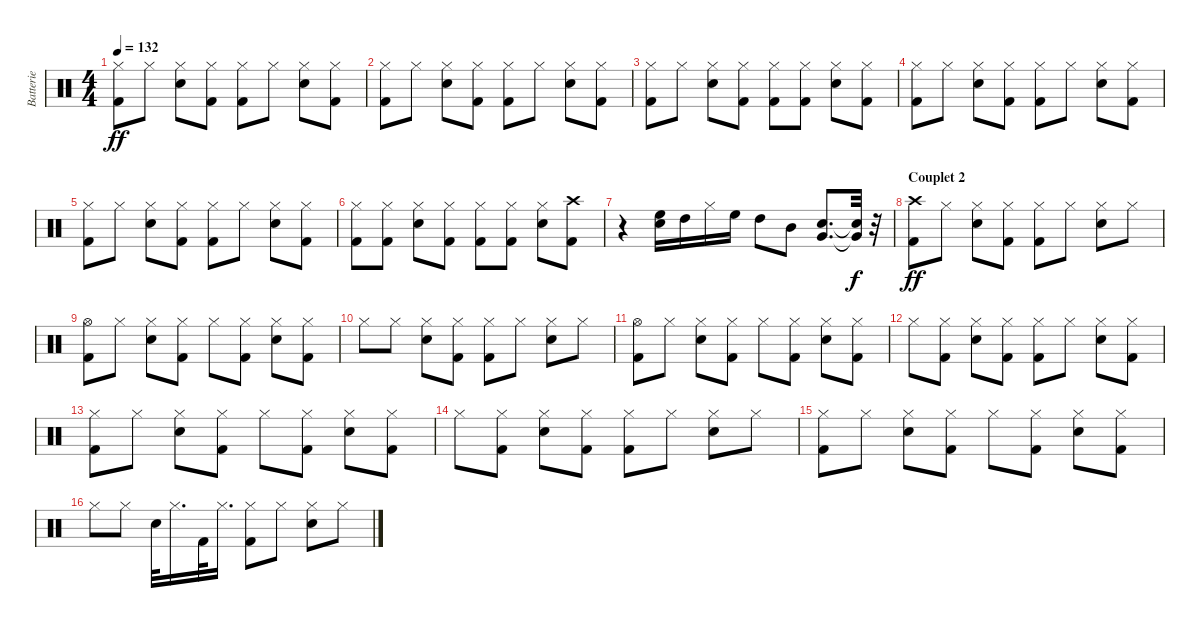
\track ("Batterie" "Batterie") {instrument percussion}
\staff {score}
\articulation defaults
\ts (4 4)
\tempo 132
\clef neutral
\ks c
("Kick (hit) 2" "Hi-Hat (closed)").8{dy ff} "Hi-Hat (closed)".8 ("Snare (hit) 2" "Hi-Hat (closed)").8 ("Kick (hit) 2" "Hi-Hat (closed)").8 ("Kick (hit) 2" "Hi-Hat (closed)").8 "Hi-Hat (closed)".8 ("Snare (hit) 2" "Hi-Hat (closed)").8 ("Kick (hit) 2" "Hi-Hat (closed)").8 |
("Kick (hit) 2" "Hi-Hat (closed)").8 "Hi-Hat (closed)".8 ("Snare (hit) 2" "Hi-Hat (closed)").8 ("Kick (hit) 2" "Hi-Hat (closed)").8 ("Kick (hit) 2" "Hi-Hat (closed)").8 "Hi-Hat (closed)".8 ("Snare (hit) 2" "Hi-Hat (closed)").8 ("Kick (hit) 2" "Hi-Hat (closed)").8 |
("Kick (hit) 2" "Hi-Hat (closed)").8 "Hi-Hat (closed)".8 ("Snare (hit) 2" "Hi-Hat (closed)").8 ("Kick (hit) 2" "Hi-Hat (closed)").8 ("Kick (hit) 2" "Hi-Hat (closed)").8 ("Kick (hit) 2" "Hi-Hat (closed)").8 ("Snare (hit) 2" "Hi-Hat (closed)").8 ("Kick (hit) 2" "Hi-Hat (closed)").8 |
("Kick (hit) 2" "Hi-Hat (closed)").8 "Hi-Hat (closed)".8 ("Snare (hit) 2" "Hi-Hat (closed)").8 ("Kick (hit) 2" "Hi-Hat (closed)").8 ("Kick (hit) 2" "Hi-Hat (closed)").8 "Hi-Hat (closed)".8 ("Snare (hit) 2" "Hi-Hat (closed)").8 ("Kick (hit) 2" "Hi-Hat (closed)").8 |
("Kick (hit) 2" "Hi-Hat (closed)").8 "Hi-Hat (closed)".8 ("Snare (hit) 2" "Hi-Hat (closed)").8 ("Kick (hit) 2" "Hi-Hat (closed)").8 ("Kick (hit) 2" "Hi-Hat (closed)").8 "Hi-Hat (closed)".8 ("Snare (hit) 2" "Hi-Hat (closed)").8 ("Kick (hit) 2" "Hi-Hat (closed)").8 |
("Kick (hit) 2" "Hi-Hat (closed)").8 ("Kick (hit) 2" "Hi-Hat (closed)").8 ("Snare (hit) 2" "Hi-Hat (closed)").8 ("Kick (hit) 2" "Hi-Hat (closed)").8 ("Kick (hit) 2" "Hi-Hat (closed)").8 ("Kick (hit) 2" "Hi-Hat (closed)").8 ("Snare (hit) 2" "Hi-Hat (closed)").8 ("Kick (hit) 2" "Crash high (hit)").8 |
r.4 ("Snare (hit) 2" "High Floor Tom (hit)").16 "High Tom (hit)".16 "Hi-Hat (closed)".16 "High Floor Tom (hit)".16 "High Tom (hit)".8 "Mid Tom (hit)".8 ("Snare (hit) 2" "Very Low Tom (hit)").8{d} ("Snare (hit) 2"{t} "Very Low Tom (hit)"{t}).32{dy f} r.32 |
\section ("" "Couplet 2")
("Kick (hit) 2" "Crash high (hit)").8{dy ff} "Hi-Hat (closed)".8 ("Snare (hit) 2" "Hi-Hat (closed)").8 ("Kick (hit) 2" "Hi-Hat (closed)").8 ("Kick (hit) 2" "Hi-Hat (closed)").8 "Hi-Hat (closed)".8 ("Snare (hit) 2" "Hi-Hat (closed)").8 "Hi-Hat (closed)".8 |
("Kick (hit) 2" "Hi-Hat (open)").8 "Hi-Hat (closed)".8 ("Snare (hit) 2" "Hi-Hat (closed)").8 ("Kick (hit) 2" "Hi-Hat (closed)").8 "Hi-Hat (closed)".8 ("Kick (hit) 2" "Hi-Hat (closed)").8 ("Snare (hit) 2" "Hi-Hat (closed)").8 ("Kick (hit) 2" "Hi-Hat (closed)").8 |
"Hi-Hat (closed)".8 "Hi-Hat (closed)".8 ("Snare (hit) 2" "Hi-Hat (closed)").8 ("Kick (hit) 2" "Hi-Hat (closed)").8 ("Kick (hit) 2" "Hi-Hat (closed)").8 "Hi-Hat (closed)".8 ("Snare (hit) 2" "Hi-Hat (closed)").8 "Hi-Hat (closed)".8 |
("Kick (hit) 2" "Hi-Hat (open)").8 "Hi-Hat (closed)".8 ("Snare (hit) 2" "Hi-Hat (closed)").8 ("Kick (hit) 2" "Hi-Hat (closed)").8 "Hi-Hat (closed)".8 ("Kick (hit) 2" "Hi-Hat (closed)").8 ("Snare (hit) 2" "Hi-Hat (closed)").8 ("Kick (hit) 2" "Hi-Hat (closed)").8 |
"Hi-Hat (closed)".8 ("Kick (hit) 2" "Hi-Hat (closed)").8 ("Snare (hit) 2" "Hi-Hat (closed)").8 ("Kick (hit) 2" "Hi-Hat (closed)").8 ("Kick (hit) 2" "Hi-Hat (closed)").8 "Hi-Hat (closed)".8 ("Snare (hit) 2" "Hi-Hat (closed)").8 ("Kick (hit) 2" "Hi-Hat (closed)").8 |
("Kick (hit) 2" "Hi-Hat (closed)").8 "Hi-Hat (closed)".8 ("Snare (hit) 2" "Hi-Hat (closed)").8 ("Kick (hit) 2" "Hi-Hat (closed)").8 "Hi-Hat (closed)".8 ("Kick (hit) 2" "Hi-Hat (closed)").8 ("Snare (hit) 2" "Hi-Hat (closed)").8 ("Kick (hit) 2" "Hi-Hat (closed)").8 |
"Hi-Hat (closed)".8 ("Kick (hit) 2" "Hi-Hat (closed)").8 ("Snare (hit) 2" "Hi-Hat (closed)").8 ("Kick (hit) 2" "Hi-Hat (closed)").8 ("Kick (hit) 2" "Hi-Hat (closed)").8 "Hi-Hat (closed)".8 ("Snare (hit) 2" "Hi-Hat (closed)").8 "Hi-Hat (closed)".8 |
("Kick (hit) 2" "Hi-Hat (closed)").8 "Hi-Hat (closed)".8 ("Snare (hit) 2" "Hi-Hat (closed)").8 ("Kick (hit) 2" "Hi-Hat (closed)").8 "Hi-Hat (closed)".8 ("Kick (hit) 2" "Hi-Hat (closed)").8 ("Snare (hit) 2" "Hi-Hat (closed)").8 ("Kick (hit) 2" "Hi-Hat (closed)").8 |
"Hi-Hat (closed)".8 "Hi-Hat (closed)".8 "Snare (hit) 2".32 "Hi-Hat (closed)".16{d} "Kick (hit) 2".32 "Hi-Hat (closed)".16{d} ("Kick (hit) 2" "Hi-Hat (closed)").8 "Hi-Hat (closed)".8 ("Snare (hit) 2" "Hi-Hat (closed)").8 "Hi-Hat (closed)".8
